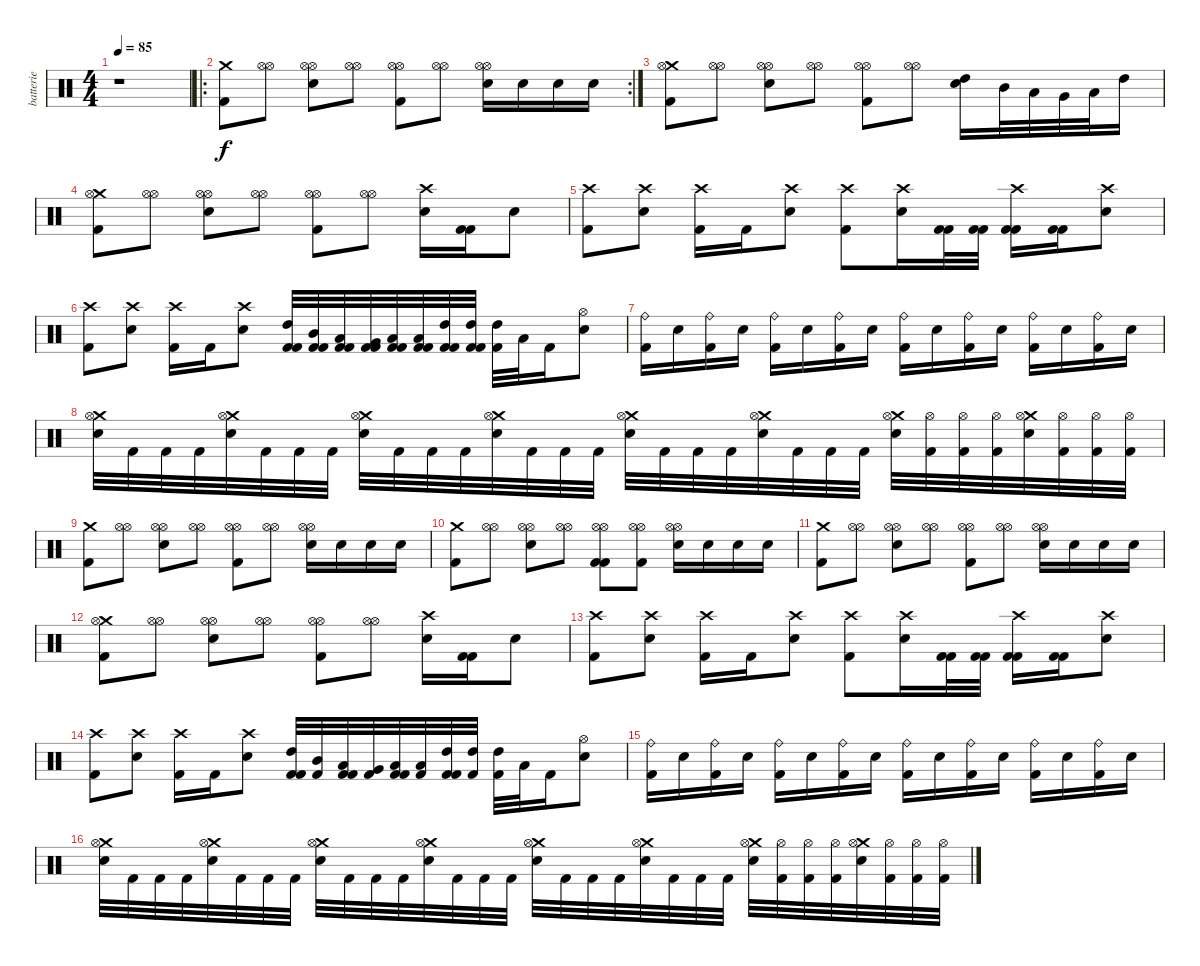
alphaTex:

\track ("batterie" "batterie") {instrument percussion}
\staff {score}
\articulation defaults
\ts (4 4)
\tempo 85
\clef neutral
\ks c
r.1{dy f} |
\ro
\rc 2
("Crash medium (hit)" "Kick (hit) 2").8 ("Hi-Hat (open)" "Hi-Hat (open)").8 ("Hi-Hat (open)" "Hi-Hat (open)" "Electric Snare (hit)").8 ("Hi-Hat (open)" "Hi-Hat (open)").8 ("Hi-Hat (open)" "Hi-Hat (open)" "Kick (hit) 2").8 ("Hi-Hat (open)" "Hi-Hat (open)").8 ("Hi-Hat (open)" "Hi-Hat (open)" "Electric Snare (hit)").16 "Electric Snare (hit)".16 "Electric Snare (hit)".16 "Electric Snare (hit)".16 |
("Crash medium (hit)" "Hi-Hat (open)" "Kick (hit) 2").8 ("Hi-Hat (open)" "Hi-Hat (open)").8 ("Hi-Hat (open)" "Hi-Hat (open)" "Electric Snare (hit)").8 ("Hi-Hat (open)" "Hi-Hat (open)").8 ("Hi-Hat (open)" "Hi-Hat (open)" "Kick (hit) 2").8 ("Hi-Hat (open)" "Hi-Hat (open)").8 ("High Tom (hit)" "Electric Snare (hit)").16 "Mid Tom (hit)".32 "Low Tom (hit)".32 "Very Low Tom (hit)".32 "Low Floor Tom (hit)".32 "High Tom (hit)".16 |
("Crash medium (hit)" "Hi-Hat (open)" "Kick (hit) 2").8 ("Hi-Hat (open)" "Hi-Hat (open)").8 ("Hi-Hat (open)" "Hi-Hat (open)" "Electric Snare (hit)").8 ("Hi-Hat (open)" "Hi-Hat (open)").8 ("Hi-Hat (open)" "Hi-Hat (open)" "Kick (hit) 2").8 ("Hi-Hat (open)" "Hi-Hat (open)").8 ("Crash high (hit)" "Electric Snare (hit)").16 ("Kick (hit) 2" "Kick (hit) 2").16 "Electric Snare (hit)".8 |
("Crash high (hit)" "Kick (hit) 2").8 ("Crash high (hit)" "Electric Snare (hit)").8 ("Crash high (hit)" "Kick (hit) 2").16 "Kick (hit) 2".16 ("Crash high (hit)" "Electric Snare (hit)").8 ("Crash high (hit)" "Kick (hit) 2").8 ("Crash high (hit)" "Electric Snare (hit)").16 ("Kick (hit) 2" "Kick (hit) 2").32 ("Kick (hit) 2" "Kick (hit) 2").32 ("Crash high (hit)" "Kick (hit) 2" "Kick (hit) 2").16 ("Kick (hit) 2" "Kick (hit) 2").16 ("Crash high (hit)" "Electric Snare (hit)").8 |
("Crash high (hit)" "Kick (hit) 2").8 ("Crash high (hit)" "Electric Snare (hit)").8 ("Crash high (hit)" "Kick (hit) 2").16 "Kick (hit) 2".16 ("Crash high (hit)" "Electric Snare (hit)").8 ("High Tom (hit)" "Kick (hit) 2" "Kick (hit) 2").32 ("Mid Tom (hit)" "Kick (hit) 2" "Kick (hit) 2").32 ("Low Tom (hit)" "Kick (hit) 2" "Kick (hit) 2").32 ("Very Low Tom (hit)" "Kick (hit) 2" "Kick (hit) 2").32 ("Low Floor Tom (hit)" "Kick (hit) 2" "Kick (hit) 2").32 ("Low Floor Tom (hit)" "Kick (hit) 2" "Kick (hit) 2").32 ("High Tom (hit)" "Kick (hit) 2" "Kick (hit) 2").32 ("High Tom (hit)" "Kick (hit) 2" "Kick (hit) 2").32 ("High Tom (hit)" "Kick (hit) 2").32 "Low Tom (hit)".32 "Kick (hit) 2".16 ("Hi-Hat (open)" "Electric Snare (hit)").8 |
("Ride (bell)" "Kick (hit) 2").16 "Electric Snare (hit)".16 ("Ride (bell)" "Kick (hit) 2").16 "Electric Snare (hit)".16 ("Ride (bell)" "Kick (hit) 2").16 "Electric Snare (hit)".16 ("Ride (bell)" "Kick (hit) 2").16 "Electric Snare (hit)".16 ("Ride (bell)" "Kick (hit) 2").16 "Electric Snare (hit)".16 ("Ride (bell)" "Kick (hit) 2").16 "Electric Snare (hit)".16 ("Ride (bell)" "Kick (hit) 2").16 "Electric Snare (hit)".16 ("Ride (bell)" "Kick (hit) 2").16 "Electric Snare (hit)".16 |
("Crash medium (hit)" "Hi-Hat (open)" "Electric Snare (hit)").32 "Kick (hit) 2".32 "Kick (hit) 2".32 "Kick (hit) 2".32 ("Crash medium (hit)" "Hi-Hat (open)" "Electric Snare (hit)").32 "Kick (hit) 2".32 "Kick (hit) 2".32 "Kick (hit) 2".32 ("Crash medium (hit)" "Hi-Hat (open)" "Electric Snare (hit)").32 "Kick (hit) 2".32 "Kick (hit) 2".32 "Kick (hit) 2".32 ("Crash medium (hit)" "Hi-Hat (open)" "Electric Snare (hit)").32 "Kick (hit) 2".32 "Kick (hit) 2".32 "Kick (hit) 2".32 ("Crash medium (hit)" "Hi-Hat (open)" "Electric Snare (hit)").32 "Kick (hit) 2".32 "Kick (hit) 2".32 "Kick (hit) 2".32 ("Crash medium (hit)" "Hi-Hat (open)" "Electric Snare (hit)").32 "Kick (hit) 2".32 "Kick (hit) 2".32 "Kick (hit) 2".32 ("Crash medium (hit)" "Hi-Hat (open)" "Electric Snare (hit)").32 ("Hi-Hat (open)" "Kick (hit) 2").32 ("Hi-Hat (open)" "Kick (hit) 2").32 ("Hi-Hat (open)" "Kick (hit) 2").32 ("Crash medium (hit)" "Hi-Hat (open)" "Electric Snare (hit)").32 ("Hi-Hat (open)" "Kick (hit) 2").32 ("Hi-Hat (open)" "Kick (hit) 2").32 ("Hi-Hat (open)" "Kick (hit) 2").32 |
("Crash medium (hit)" "Kick (hit) 2").8 ("Hi-Hat (open)" "Hi-Hat (open)").8 ("Hi-Hat (open)" "Hi-Hat (open)" "Electric Snare (hit)").8 ("Hi-Hat (open)" "Hi-Hat (open)").8 ("Hi-Hat (open)" "Hi-Hat (open)" "Kick (hit) 2").8 ("Hi-Hat (open)" "Hi-Hat (open)").8 ("Hi-Hat (open)" "Hi-Hat (open)" "Electric Snare (hit)").16 "Electric Snare (hit)".16 "Electric Snare (hit)".16 "Electric Snare (hit)".16 |
("Crash medium (hit)" "Kick (hit) 2").8 ("Hi-Hat (open)" "Hi-Hat (open)").8 ("Hi-Hat (open)" "Hi-Hat (open)" "Electric Snare (hit)").8 ("Hi-Hat (open)" "Hi-Hat (open)").8 ("Hi-Hat (open)" "Hi-Hat (open)" "Kick (hit) 2" "Kick (hit) 2").8 ("Hi-Hat (open)" "Hi-Hat (open)" "Kick (hit) 2").8 ("Hi-Hat (open)" "Hi-Hat (open)" "Electric Snare (hit)").16 "Electric Snare (hit)".16 "Electric Snare (hit)".16 "Electric Snare (hit)".16 |
("Crash medium (hit)" "Kick (hit) 2").8 ("Hi-Hat (open)" "Hi-Hat (open)").8 ("Hi-Hat (open)" "Hi-Hat (open)" "Electric Snare (hit)").8 ("Hi-Hat (open)" "Hi-Hat (open)").8 ("Hi-Hat (open)" "Hi-Hat (open)" "Kick (hit) 2").8 ("Hi-Hat (open)" "Hi-Hat (open)").8 ("Hi-Hat (open)" "Hi-Hat (open)" "Electric Snare (hit)").16 "Electric Snare (hit)".16 "Electric Snare (hit)".16 "Electric Snare (hit)".16 |
("Crash medium (hit)" "Hi-Hat (open)" "Kick (hit) 2").8 ("Hi-Hat (open)" "Hi-Hat (open)").8 ("Hi-Hat (open)" "Hi-Hat (open)" "Electric Snare (hit)").8 ("Hi-Hat (open)" "Hi-Hat (open)").8 ("Hi-Hat (open)" "Hi-Hat (open)" "Kick (hit) 2").8 ("Hi-Hat (open)" "Hi-Hat (open)").8 ("Crash high (hit)" "Electric Snare (hit)").16 ("Kick (hit) 2" "Kick (hit) 2").16 "Electric Snare (hit)".8 |
("Crash high (hit)" "Kick (hit) 2").8 ("Crash high (hit)" "Electric Snare (hit)").8 ("Crash high (hit)" "Kick (hit) 2").16 "Kick (hit) 2".16 ("Crash high (hit)" "Electric Snare (hit)").8 ("Crash high (hit)" "Kick (hit) 2").8 ("Crash high (hit)" "Electric Snare (hit)").16 ("Kick (hit) 2" "Kick (hit) 2").32 ("Kick (hit) 2" "Kick (hit) 2").32 ("Crash high (hit)" "Kick (hit) 2" "Kick (hit) 2").16 ("Kick (hit) 2" "Kick (hit) 2").16 ("Crash high (hit)" "Electric Snare (hit)").8 |
("Crash high (hit)" "Kick (hit) 2").8 ("Crash high (hit)" "Electric Snare (hit)").8 ("Crash high (hit)" "Kick (hit) 2").16 "Kick (hit) 2".16 ("Crash high (hit)" "Electric Snare (hit)").8 ("High Tom (hit)" "Kick (hit) 2" "Kick (hit) 2").32 ("Mid Tom (hit)" "Kick (hit) 2").32 ("Low Tom (hit)" "Kick (hit) 2" "Kick (hit) 2").32 ("Very Low Tom (hit)" "Kick (hit) 2").32 ("Low Floor Tom (hit)" "Kick (hit) 2" "Kick (hit) 2").32 ("Low Floor Tom (hit)" "Kick (hit) 2").32 ("High Tom (hit)" "Kick (hit) 2" "Kick (hit) 2").32 ("High Tom (hit)" "Kick (hit) 2").32 ("High Tom (hit)" "Kick (hit) 2").32 "Low Tom (hit)".32 "Kick (hit) 2".16 ("Hi-Hat (open)" "Electric Snare (hit)").8 |
("Ride (bell)" "Kick (hit) 2").16 "Electric Snare (hit)".16 ("Ride (bell)" "Kick (hit) 2").16 "Electric Snare (hit)".16 ("Ride (bell)" "Kick (hit) 2").16 "Electric Snare (hit)".16 ("Ride (bell)" "Kick (hit) 2").16 "Electric Snare (hit)".16 ("Ride (bell)" "Kick (hit) 2").16 "Electric Snare (hit)".16 ("Ride (bell)" "Kick (hit) 2").16 "Electric Snare (hit)".16 ("Ride (bell)" "Kick (hit) 2").16 "Electric Snare (hit)".16 ("Ride (bell)" "Kick (hit) 2").16 "Electric Snare (hit)".16 |
("Crash medium (hit)" "Hi-Hat (open)" "Electric Snare (hit)").32 "Kick (hit) 2".32 "Kick (hit) 2".32 "Kick (hit) 2".32 ("Crash medium (hit)" "Hi-Hat (open)" "Electric Snare (hit)").32 "Kick (hit) 2".32 "Kick (hit) 2".32 "Kick (hit) 2".32 ("Crash medium (hit)" "Hi-Hat (open)" "Electric Snare (hit)").32 "Kick (hit) 2".32 "Kick (hit) 2".32 "Kick (hit) 2".32 ("Crash medium (hit)" "Hi-Hat (open)" "Electric Snare (hit)").32 "Kick (hit) 2".32 "Kick (hit) 2".32 "Kick (hit) 2".32 ("Crash medium (hit)" "Hi-Hat (open)" "Electric Snare (hit)").32 "Kick (hit) 2".32 "Kick (hit) 2".32 "Kick (hit) 2".32 ("Crash medium (hit)" "Hi-Hat (open)" "Electric Snare (hit)").32 "Kick (hit) 2".32 "Kick (hit) 2".32 "Kick (hit) 2".32 ("Crash medium (hit)" "Hi-Hat (open)" "Electric Snare (hit)").32 ("Hi-Hat (open)" "Kick (hit) 2").32 ("Hi-Hat (open)" "Kick (hit) 2").32 ("Hi-Hat (open)" "Kick (hit) 2").32 ("Crash medium (hit)" "Hi-Hat (open)" "Electric Snare (hit)").32 ("Hi-Hat (open)" "Kick (hit) 2").32 ("Hi-Hat (open)" "Kick (hit) 2").32 ("Hi-Hat (open)" "Kick (hit) 2").32
